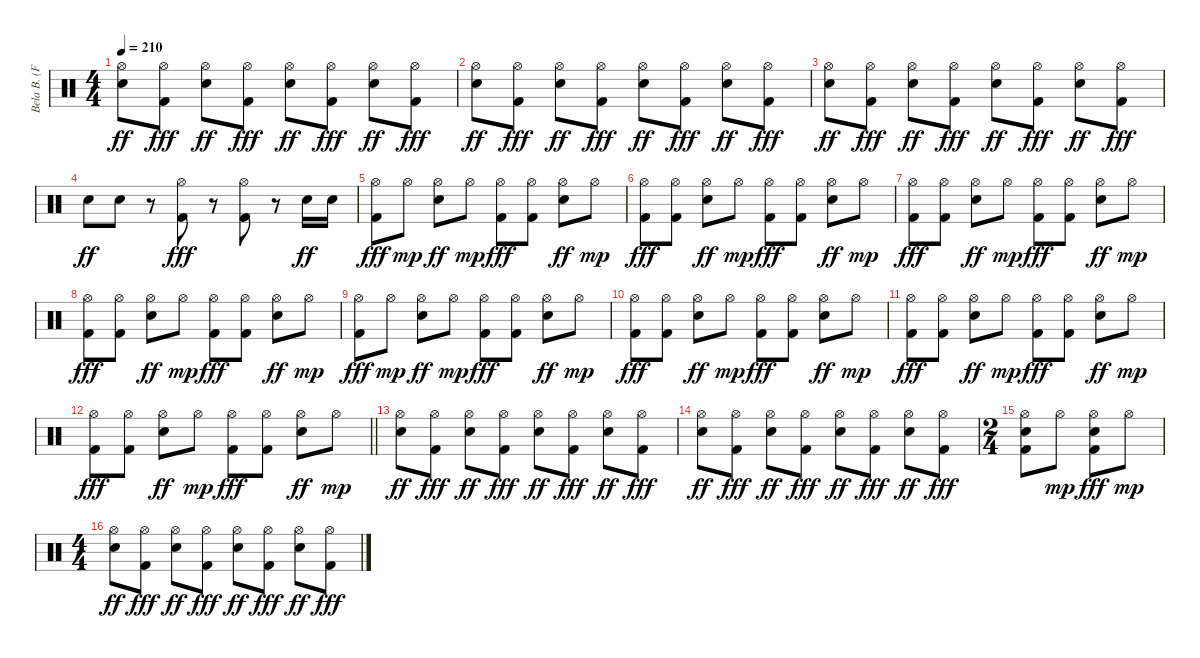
\track ("Bela B. (Felsenheimer)" "Bela B. (F") {instrument percussion}
\staff {score}
\articulation defaults
\ts (4 4)
\tempo 210
\clef neutral
\ks c
("Hi-Hat (open)" "Electric Snare (hit)").8{dy ff} ("Hi-Hat (open)" "Kick (hit) 2").8{dy fff} ("Hi-Hat (open)" "Electric Snare (hit)").8{dy ff} ("Hi-Hat (open)" "Kick (hit) 2").8{dy fff} ("Hi-Hat (open)" "Electric Snare (hit)").8{dy ff} ("Hi-Hat (open)" "Kick (hit) 2").8{dy fff} ("Hi-Hat (open)" "Electric Snare (hit)").8{dy ff} ("Hi-Hat (open)" "Kick (hit) 2").8{dy fff} |
("Hi-Hat (open)" "Electric Snare (hit)").8{dy ff} ("Hi-Hat (open)" "Kick (hit) 2").8{dy fff} ("Hi-Hat (open)" "Electric Snare (hit)").8{dy ff} ("Hi-Hat (open)" "Kick (hit) 2").8{dy fff} ("Hi-Hat (open)" "Electric Snare (hit)").8{dy ff} ("Hi-Hat (open)" "Kick (hit) 2").8{dy fff} ("Hi-Hat (open)" "Electric Snare (hit)").8{dy ff} ("Hi-Hat (open)" "Kick (hit) 2").8{dy fff} |
("Hi-Hat (open)" "Electric Snare (hit)").8{dy ff} ("Hi-Hat (open)" "Kick (hit) 2").8{dy fff} ("Hi-Hat (open)" "Electric Snare (hit)").8{dy ff} ("Hi-Hat (open)" "Kick (hit) 2").8{dy fff} ("Hi-Hat (open)" "Electric Snare (hit)").8{dy ff} ("Hi-Hat (open)" "Kick (hit) 2").8{dy fff} ("Hi-Hat (open)" "Electric Snare (hit)").8{dy ff} ("Hi-Hat (open)" "Kick (hit) 2").8{dy fff} |
"Electric Snare (hit)".8{dy ff} "Electric Snare (hit)".8 r.8 ("Hi-Hat (open)" "Kick (hit) 2").8{dy fff} r.8 ("Hi-Hat (open)" "Kick (hit) 2").8 r.8 "Electric Snare (hit)".16{dy ff} "Electric Snare (hit)".16 |
("Hi-Hat (open)" "Kick (hit) 2").8{dy fff} "Hi-Hat (open)".8{dy mp} ("Hi-Hat (open)" "Electric Snare (hit)").8{dy ff} "Hi-Hat (open)".8{dy mp} ("Hi-Hat (open)" "Kick (hit) 2").8{dy fff} ("Hi-Hat (open)" "Kick (hit) 2").8 ("Hi-Hat (open)" "Electric Snare (hit)").8{dy ff} "Hi-Hat (open)".8{dy mp} |
("Hi-Hat (open)" "Kick (hit) 2").8{dy fff} ("Hi-Hat (open)" "Kick (hit) 2").8 ("Hi-Hat (open)" "Electric Snare (hit)").8{dy ff} "Hi-Hat (open)".8{dy mp} ("Hi-Hat (open)" "Kick (hit) 2").8{dy fff} ("Hi-Hat (open)" "Kick (hit) 2").8 ("Hi-Hat (open)" "Electric Snare (hit)").8{dy ff} "Hi-Hat (open)".8{dy mp} |
("Hi-Hat (open)" "Kick (hit) 2").8{dy fff} ("Hi-Hat (open)" "Kick (hit) 2").8 ("Hi-Hat (open)" "Electric Snare (hit)").8{dy ff} "Hi-Hat (open)".8{dy mp} ("Hi-Hat (open)" "Kick (hit) 2").8{dy fff} ("Hi-Hat (open)" "Kick (hit) 2").8 ("Hi-Hat (open)" "Electric Snare (hit)").8{dy ff} "Hi-Hat (open)".8{dy mp} |
("Hi-Hat (open)" "Kick (hit) 2").8{dy fff} ("Hi-Hat (open)" "Kick (hit) 2").8 ("Hi-Hat (open)" "Electric Snare (hit)").8{dy ff} "Hi-Hat (open)".8{dy mp} ("Hi-Hat (open)" "Kick (hit) 2").8{dy fff} ("Hi-Hat (open)" "Kick (hit) 2").8 ("Hi-Hat (open)" "Electric Snare (hit)").8{dy ff} "Hi-Hat (open)".8{dy mp} |
("Hi-Hat (open)" "Kick (hit) 2").8{dy fff} "Hi-Hat (open)".8{dy mp} ("Hi-Hat (open)" "Electric Snare (hit)").8{dy ff} "Hi-Hat (open)".8{dy mp} ("Hi-Hat (open)" "Kick (hit) 2").8{dy fff} ("Hi-Hat (open)" "Kick (hit) 2").8 ("Hi-Hat (open)" "Electric Snare (hit)").8{dy ff} "Hi-Hat (open)".8{dy mp} |
("Hi-Hat (open)" "Kick (hit) 2").8{dy fff} ("Hi-Hat (open)" "Kick (hit) 2").8 ("Hi-Hat (open)" "Electric Snare (hit)").8{dy ff} "Hi-Hat (open)".8{dy mp} ("Hi-Hat (open)" "Kick (hit) 2").8{dy fff} ("Hi-Hat (open)" "Kick (hit) 2").8 ("Hi-Hat (open)" "Electric Snare (hit)").8{dy ff} "Hi-Hat (open)".8{dy mp} |
("Hi-Hat (open)" "Kick (hit) 2").8{dy fff} ("Hi-Hat (open)" "Kick (hit) 2").8 ("Hi-Hat (open)" "Electric Snare (hit)").8{dy ff} "Hi-Hat (open)".8{dy mp} ("Hi-Hat (open)" "Kick (hit) 2").8{dy fff} ("Hi-Hat (open)" "Kick (hit) 2").8 ("Hi-Hat (open)" "Electric Snare (hit)").8{dy ff} "Hi-Hat (open)".8{dy mp} |
\barLineRight lightlight
("Hi-Hat (open)" "Kick (hit) 2").8{dy fff} ("Hi-Hat (open)" "Kick (hit) 2").8 ("Hi-Hat (open)" "Electric Snare (hit)").8{dy ff} "Hi-Hat (open)".8{dy mp} ("Hi-Hat (open)" "Kick (hit) 2").8{dy fff} ("Hi-Hat (open)" "Kick (hit) 2").8 ("Hi-Hat (open)" "Electric Snare (hit)").8{dy ff} "Hi-Hat (open)".8{dy mp} |
("Hi-Hat (open)" "Electric Snare (hit)").8{dy ff} ("Hi-Hat (open)" "Kick (hit) 2").8{dy fff} ("Hi-Hat (open)" "Electric Snare (hit)").8{dy ff} ("Hi-Hat (open)" "Kick (hit) 2").8{dy fff} ("Hi-Hat (open)" "Electric Snare (hit)").8{dy ff} ("Hi-Hat (open)" "Kick (hit) 2").8{dy fff} ("Hi-Hat (open)" "Electric Snare (hit)").8{dy ff} ("Hi-Hat (open)" "Kick (hit) 2").8{dy fff} |
("Hi-Hat (open)" "Electric Snare (hit)").8{dy ff} ("Hi-Hat (open)" "Kick (hit) 2").8{dy fff} ("Hi-Hat (open)" "Electric Snare (hit)").8{dy ff} ("Hi-Hat (open)" "Kick (hit) 2").8{dy fff} ("Hi-Hat (open)" "Electric Snare (hit)").8{dy ff} ("Hi-Hat (open)" "Kick (hit) 2").8{dy fff} ("Hi-Hat (open)" "Electric Snare (hit)").8{dy ff} ("Hi-Hat (open)" "Kick (hit) 2").8{dy fff} |
\ts (2 4)
("Hi-Hat (open)" "Electric Snare (hit)" "Kick (hit) 2").8 "Hi-Hat (open)".8{dy mp} ("Hi-Hat (open)" "Electric Snare (hit)" "Kick (hit) 2").8{dy fff} "Hi-Hat (open)".8{dy mp} |
\ts (4 4)
("Hi-Hat (open)" "Electric Snare (hit)").8{dy ff} ("Hi-Hat (open)" "Kick (hit) 2").8{dy fff} ("Hi-Hat (open)" "Electric Snare (hit)").8{dy ff} ("Hi-Hat (open)" "Kick (hit) 2").8{dy fff} ("Hi-Hat (open)" "Electric Snare (hit)").8{dy ff} ("Hi-Hat (open)" "Kick (hit) 2").8{dy fff} ("Hi-Hat (open)" "Electric Snare (hit)").8{dy ff} ("Hi-Hat (open)" "Kick (hit) 2").8{dy fff}
